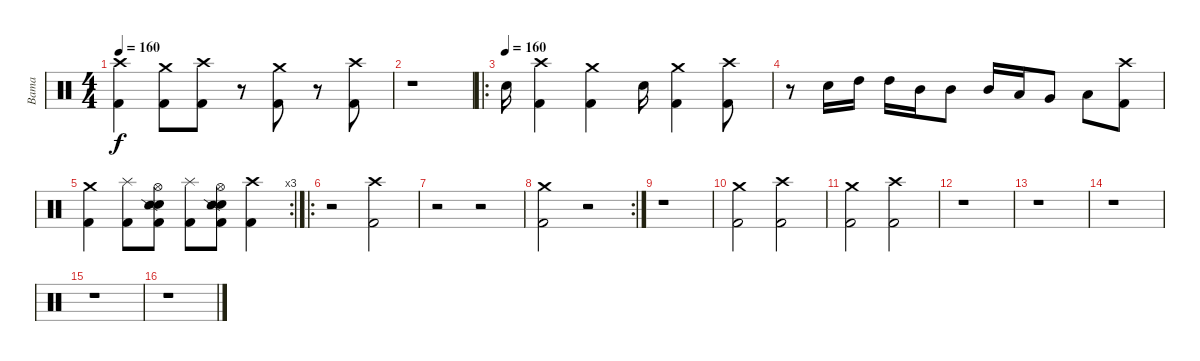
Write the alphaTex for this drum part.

\track ("Bama" "Bama") {instrument percussion}
\staff {score}
\articulation defaults
\ts (4 4)
\tempo 160
\clef neutral
\ks c
("Crash high (hit)" "Kick (hit) 2").4{dy f} ("Crash medium (hit)" "Kick (hit) 2").8 ("Crash high (hit)" "Kick (hit) 2").8 r.8 ("Crash medium (hit)" "Kick (hit) 2").8 r.8 ("Crash high (hit)" "Kick (hit) 2").8 |
r.1 |
\ro
\tempo (160)
"Electric Snare (hit)".16 ("Crash high (hit)" "Kick (hit) 2").4 ("Crash medium (hit)" "Kick (hit) 2").4 "Electric Snare (hit)".16 ("Crash medium (hit)" "Kick (hit) 2").4 ("Crash high (hit)" "Kick (hit) 2").8 |
r.8 "Electric Snare (hit)".16 "High Tom (hit)".16 "High Tom (hit)".16 "Mid Tom (hit)".16 "Mid Tom (hit)".8 "Mid Tom (hit)".16 "Low Tom (hit)".16 "Very Low Tom (hit)".8 "Low Floor Tom (hit)".8 ("Crash high (hit)" "Kick (hit) 2").8 |
\rc 3
("Crash medium (hit)" "Kick (hit) 2").4 ("Splash (hit)" "Kick (hit) 2").8 ("Hi-Hat (open)" "Electric Snare (hit)" "Snare (side stick) 2" "Kick (hit) 2").8 ("Splash (hit)" "Kick (hit) 2").8 ("Hi-Hat (open)" "Electric Snare (hit)" "Snare (side stick) 2" "Kick (hit) 2").8 ("Crash high (hit)" "Kick (hit) 2").4 |
\ro
r.2 ("Crash high (hit)" "Kick (hit) 2").2 |
r.2 r.2 |
\rc 2
("Crash medium (hit)" "Kick (hit) 2").2 r.2 |
r.1 |
("Crash medium (hit)" "Kick (hit) 2").2 ("Crash high (hit)" "Kick (hit) 2").2 |
("Crash medium (hit)" "Kick (hit) 2").2 ("Crash high (hit)" "Kick (hit) 2").2 |
r.1 |
r.1 |
r.1 |
r.1 |
r.1
